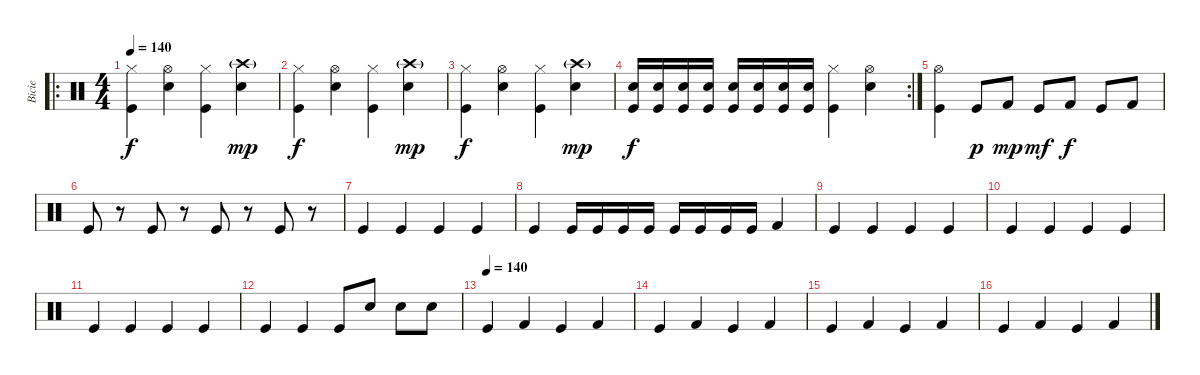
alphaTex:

\track ("Bicie" "Bicie") {instrument percussion}
\staff {score}
\articulation defaults
\ro
\ts (4 4)
\tempo 140
\clef neutral
\ks c
("Hi-Hat (closed)" "Kick (hit)").4{dy f} ("Hi-Hat (open)" "Electric Snare (hit)").4 ("Hi-Hat (closed)" "Kick (hit)").4 ("Crash high (hit)"{g} "Electric Snare (hit)").4{dy mp} |
("Hi-Hat (closed)" "Kick (hit)").4{dy f} ("Hi-Hat (open)" "Electric Snare (hit)").4 ("Hi-Hat (closed)" "Kick (hit)").4 ("Crash high (hit)"{g} "Electric Snare (hit)").4{dy mp} |
("Hi-Hat (closed)" "Kick (hit)").4{dy f} ("Hi-Hat (open)" "Electric Snare (hit)").4 ("Hi-Hat (closed)" "Kick (hit)").4 ("Crash high (hit)"{g} "Electric Snare (hit)").4{dy mp} |
\rc 2
("Electric Snare (hit)" "Kick (hit)").16{dy f} ("Electric Snare (hit)" "Kick (hit)").16 ("Electric Snare (hit)" "Kick (hit)").16 ("Electric Snare (hit)" "Kick (hit)").16 ("Electric Snare (hit)" "Kick (hit)").16 ("Electric Snare (hit)" "Kick (hit)").16 ("Electric Snare (hit)" "Kick (hit)").16 ("Electric Snare (hit)" "Kick (hit)").16 ("Hi-Hat (closed)" "Kick (hit)").4 ("Hi-Hat (open)" "Electric Snare (hit)").4 |
("Hi-Hat (open)" "Kick (hit)").4 "Kick (hit)".8{dy p} "Kick (hit) 2".8{dy mp} "Kick (hit)".8{dy mf} "Kick (hit) 2".8{dy f} "Kick (hit)".8 "Kick (hit) 2".8 |
"Kick (hit)".8 r.8 "Kick (hit)".8 r.8 "Kick (hit)".8 r.8 "Kick (hit)".8 r.8 |
"Kick (hit)".4 "Kick (hit)".4 "Kick (hit)".4 "Kick (hit)".4 |
"Kick (hit)".4 "Kick (hit)".16 "Kick (hit)".16 "Kick (hit)".16 "Kick (hit)".16 "Kick (hit)".16 "Kick (hit)".16 "Kick (hit)".16 "Kick (hit)".16 "Kick (hit) 2".4 |
"Kick (hit)".4 "Kick (hit)".4 "Kick (hit)".4 "Kick (hit)".4 |
"Kick (hit)".4 "Kick (hit)".4 "Kick (hit)".4 "Kick (hit)".4 |
"Kick (hit)".4 "Kick (hit)".4 "Kick (hit)".4 "Kick (hit)".4 |
"Kick (hit)".4 "Kick (hit)".4 "Kick (hit)".8 "Electric Snare (hit)".8 "Electric Snare (hit)".8 "Electric Snare (hit)".8 |
\tempo (140)
"Kick (hit)".4 "Kick (hit) 2".4 "Kick (hit)".4 "Kick (hit) 2".4 |
"Kick (hit)".4 "Kick (hit) 2".4 "Kick (hit)".4 "Kick (hit) 2".4 |
"Kick (hit)".4 "Kick (hit) 2".4 "Kick (hit)".4 "Kick (hit) 2".4 |
"Kick (hit)".4 "Kick (hit) 2".4 "Kick (hit)".4 "Kick (hit) 2".4
